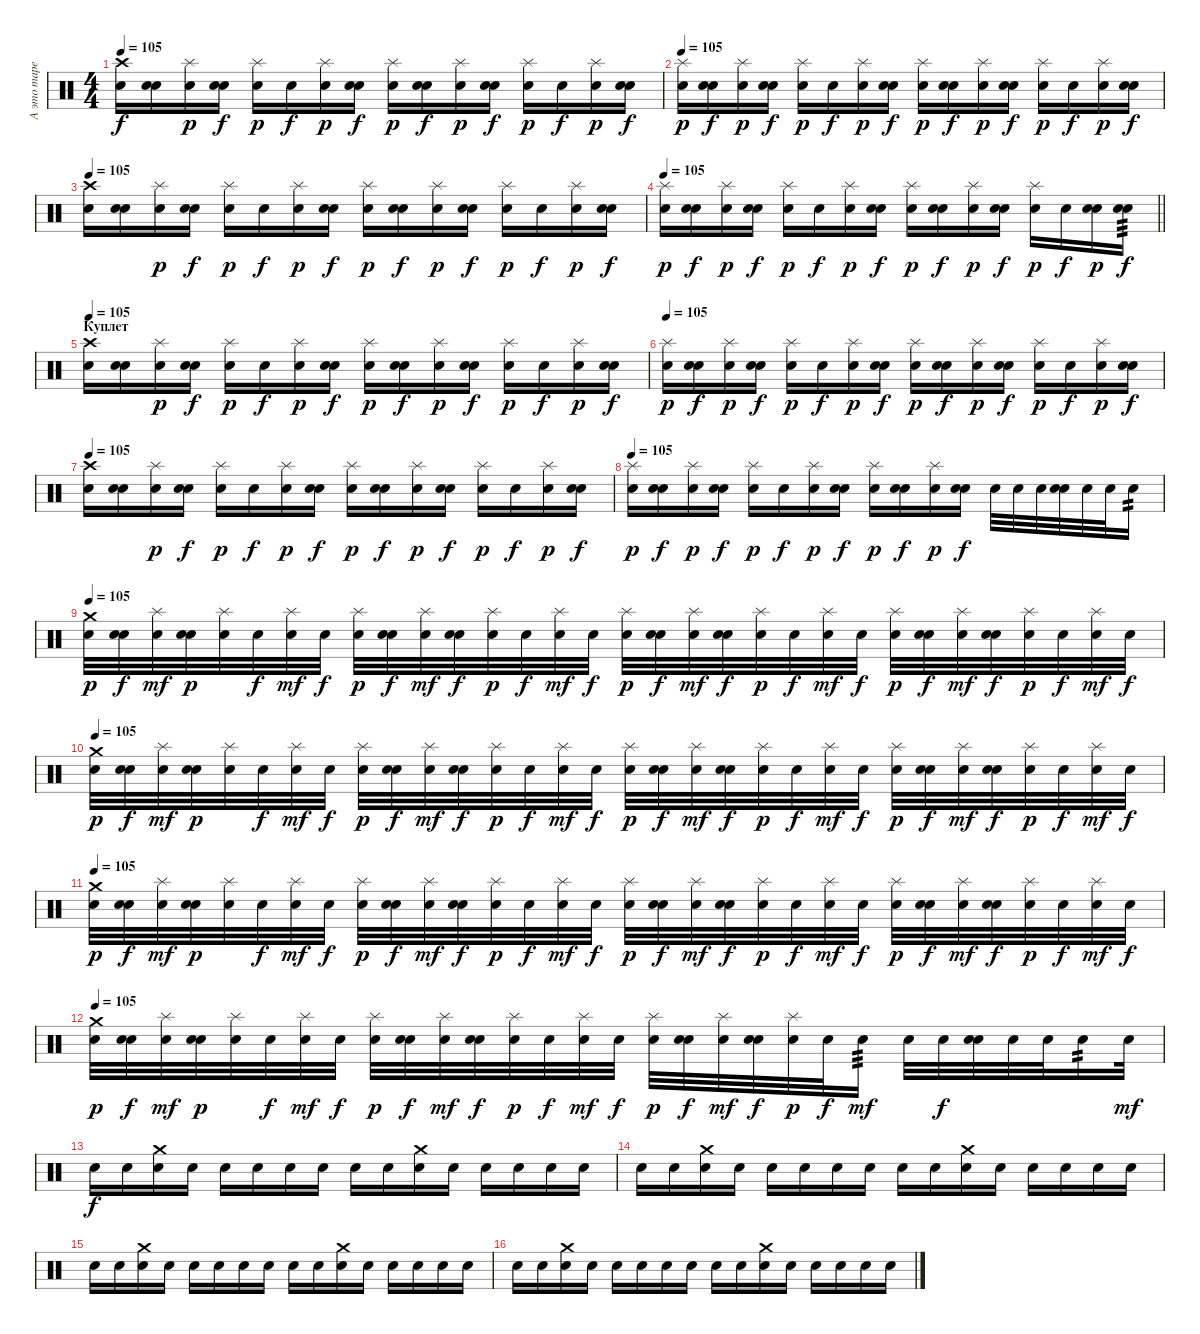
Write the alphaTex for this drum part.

\track ("А это тарелки уже" "А это таре") {instrument percussion}
\staff {score}
\articulation defaults
\ts (4 4)
\tempo 115
\tempo 105
\clef neutral
\ks c
("Crash high (hit)" "Snare (hit)").16{dy f} ("Snare (hit)" "Snare (hit)").16 ("Splash (hit)" "Snare (hit)").16{dy p} ("Snare (hit)" "Snare (hit)").16{dy f} ("Splash (hit)" "Snare (hit)").16{dy p} "Snare (hit)".16{dy f} ("Splash (hit)" "Snare (hit)").16{dy p} ("Snare (hit)" "Snare (hit)").16{dy f} ("Splash (hit)" "Snare (hit)").16{dy p} ("Snare (hit)" "Snare (hit)").16{dy f} ("Splash (hit)" "Snare (hit)").16{dy p} ("Snare (hit)" "Snare (hit)").16{dy f} ("Splash (hit)" "Snare (hit)").16{dy p} "Snare (hit)".16{dy f} ("Splash (hit)" "Snare (hit)").16{dy p} ("Snare (hit)" "Snare (hit)").16{dy f} |
\tempo 105
("Splash (hit)" "Snare (hit)").16{dy p} ("Snare (hit)" "Snare (hit)").16{dy f} ("Splash (hit)" "Snare (hit)").16{dy p} ("Snare (hit)" "Snare (hit)").16{dy f} ("Splash (hit)" "Snare (hit)").16{dy p} "Snare (hit)".16{dy f} ("Splash (hit)" "Snare (hit)").16{dy p} ("Snare (hit)" "Snare (hit)").16{dy f} ("Splash (hit)" "Snare (hit)").16{dy p} ("Snare (hit)" "Snare (hit)").16{dy f} ("Splash (hit)" "Snare (hit)").16{dy p} ("Snare (hit)" "Snare (hit)").16{dy f} ("Splash (hit)" "Snare (hit)").16{dy p} "Snare (hit)".16{dy f} ("Splash (hit)" "Snare (hit)").16{dy p} ("Snare (hit)" "Snare (hit)").16{dy f} |
\tempo 105
("Crash high (hit)" "Snare (hit)").16 ("Snare (hit)" "Snare (hit)").16 ("Splash (hit)" "Snare (hit)").16{dy p} ("Snare (hit)" "Snare (hit)").16{dy f} ("Splash (hit)" "Snare (hit)").16{dy p} "Snare (hit)".16{dy f} ("Splash (hit)" "Snare (hit)").16{dy p} ("Snare (hit)" "Snare (hit)").16{dy f} ("Splash (hit)" "Snare (hit)").16{dy p} ("Snare (hit)" "Snare (hit)").16{dy f} ("Splash (hit)" "Snare (hit)").16{dy p} ("Snare (hit)" "Snare (hit)").16{dy f} ("Splash (hit)" "Snare (hit)").16{dy p} "Snare (hit)".16{dy f} ("Splash (hit)" "Snare (hit)").16{dy p} ("Snare (hit)" "Snare (hit)").16{dy f} |
\tempo 105
\barLineRight lightlight
("Splash (hit)" "Snare (hit)").16{dy p} ("Snare (hit)" "Snare (hit)").16{dy f} ("Splash (hit)" "Snare (hit)").16{dy p} ("Snare (hit)" "Snare (hit)").16{dy f} ("Splash (hit)" "Snare (hit)").16{dy p} "Snare (hit)".16{dy f} ("Splash (hit)" "Snare (hit)").16{dy p} ("Snare (hit)" "Snare (hit)").16{dy f} ("Splash (hit)" "Snare (hit)").16{dy p} ("Snare (hit)" "Snare (hit)").16{dy f} ("Splash (hit)" "Snare (hit)").16{dy p} ("Snare (hit)" "Snare (hit)").16{dy f} ("Splash (hit)" "Snare (hit)").16{dy p} "Snare (hit)".16{dy f} ("Snare (hit)" "Snare (hit)").16{dy p} ("Snare (hit)" "Snare (hit)").16{tp 3 dy f} |
\section ("" "Куплет")
\tempo 105
("Crash high (hit)" "Snare (hit)").16 ("Snare (hit)" "Snare (hit)").16 ("Splash (hit)" "Snare (hit)").16{dy p} ("Snare (hit)" "Snare (hit)").16{dy f} ("Splash (hit)" "Snare (hit)").16{dy p} "Snare (hit)".16{dy f} ("Splash (hit)" "Snare (hit)").16{dy p} ("Snare (hit)" "Snare (hit)").16{dy f} ("Splash (hit)" "Snare (hit)").16{dy p} ("Snare (hit)" "Snare (hit)").16{dy f} ("Splash (hit)" "Snare (hit)").16{dy p} ("Snare (hit)" "Snare (hit)").16{dy f} ("Splash (hit)" "Snare (hit)").16{dy p} "Snare (hit)".16{dy f} ("Splash (hit)" "Snare (hit)").16{dy p} ("Snare (hit)" "Snare (hit)").16{dy f} |
\tempo 105
("Splash (hit)" "Snare (hit)").16{dy p} ("Snare (hit)" "Snare (hit)").16{dy f} ("Splash (hit)" "Snare (hit)").16{dy p} ("Snare (hit)" "Snare (hit)").16{dy f} ("Splash (hit)" "Snare (hit)").16{dy p} "Snare (hit)".16{dy f} ("Splash (hit)" "Snare (hit)").16{dy p} ("Snare (hit)" "Snare (hit)").16{dy f} ("Splash (hit)" "Snare (hit)").16{dy p} ("Snare (hit)" "Snare (hit)").16{dy f} ("Splash (hit)" "Snare (hit)").16{dy p} ("Snare (hit)" "Snare (hit)").16{dy f} ("Splash (hit)" "Snare (hit)").16{dy p} "Snare (hit)".16{dy f} ("Splash (hit)" "Snare (hit)").16{dy p} ("Snare (hit)" "Snare (hit)").16{dy f} |
\tempo 105
("Crash high (hit)" "Snare (hit)").16 ("Snare (hit)" "Snare (hit)").16 ("Splash (hit)" "Snare (hit)").16{dy p} ("Snare (hit)" "Snare (hit)").16{dy f} ("Splash (hit)" "Snare (hit)").16{dy p} "Snare (hit)".16{dy f} ("Splash (hit)" "Snare (hit)").16{dy p} ("Snare (hit)" "Snare (hit)").16{dy f} ("Splash (hit)" "Snare (hit)").16{dy p} ("Snare (hit)" "Snare (hit)").16{dy f} ("Splash (hit)" "Snare (hit)").16{dy p} ("Snare (hit)" "Snare (hit)").16{dy f} ("Splash (hit)" "Snare (hit)").16{dy p} "Snare (hit)".16{dy f} ("Splash (hit)" "Snare (hit)").16{dy p} ("Snare (hit)" "Snare (hit)").16{dy f} |
\tempo 105
("Splash (hit)" "Snare (hit)").16{dy p} ("Snare (hit)" "Snare (hit)").16{dy f} ("Splash (hit)" "Snare (hit)").16{dy p} ("Snare (hit)" "Snare (hit)").16{dy f} ("Splash (hit)" "Snare (hit)").16{dy p} "Snare (hit)".16{dy f} ("Splash (hit)" "Snare (hit)").16{dy p} ("Snare (hit)" "Snare (hit)").16{dy f} ("Splash (hit)" "Snare (hit)").16{dy p} ("Snare (hit)" "Snare (hit)").16{dy f} ("Splash (hit)" "Snare (hit)").16{dy p} ("Snare (hit)" "Snare (hit)").16{dy f} "Snare (hit)".32 "Snare (hit)".32 "Snare (hit)".32 ("Snare (hit)" "Snare (hit)").32 "Snare (hit)".32 "Snare (hit)".32 "Snare (hit)".16{tp 2} |
\tempo 105
("Crash medium (hit)" "Snare (hit)").32{dy p} ("Snare (hit)" "Snare (hit)").32{dy f} ("Splash (hit)" "Snare (hit)").32{dy mf} ("Snare (hit)" "Snare (hit)").32{dy p} ("Splash (hit)" "Snare (hit)").32 "Snare (hit)".32{dy f} ("Splash (hit)" "Snare (hit)").32{dy mf} "Snare (hit)".32{dy f} ("Splash (hit)" "Snare (hit)").32{dy p} ("Snare (hit)" "Snare (hit)").32{dy f} ("Splash (hit)" "Snare (hit)").32{dy mf} ("Snare (hit)" "Snare (hit)").32{dy f} ("Splash (hit)" "Snare (hit)").32{dy p} "Snare (hit)".32{dy f} ("Splash (hit)" "Snare (hit)").32{dy mf} "Snare (hit)".32{dy f} ("Splash (hit)" "Snare (hit)").32{dy p} ("Snare (hit)" "Snare (hit)").32{dy f} ("Splash (hit)" "Snare (hit)").32{dy mf} ("Snare (hit)" "Snare (hit)").32{dy f} ("Splash (hit)" "Snare (hit)").32{dy p} "Snare (hit)".32{dy f} ("Splash (hit)" "Snare (hit)").32{dy mf} "Snare (hit)".32{dy f} ("Splash (hit)" "Snare (hit)").32{dy p} ("Snare (hit)" "Snare (hit)").32{dy f} ("Splash (hit)" "Snare (hit)").32{dy mf} ("Snare (hit)" "Snare (hit)").32{dy f} ("Splash (hit)" "Snare (hit)").32{dy p} "Snare (hit)".32{dy f} ("Splash (hit)" "Snare (hit)").32{dy mf} "Snare (hit)".32{dy f} |
\tempo 105
("Crash medium (hit)" "Snare (hit)").32{dy p} ("Snare (hit)" "Snare (hit)").32{dy f} ("Splash (hit)" "Snare (hit)").32{dy mf} ("Snare (hit)" "Snare (hit)").32{dy p} ("Splash (hit)" "Snare (hit)").32 "Snare (hit)".32{dy f} ("Splash (hit)" "Snare (hit)").32{dy mf} "Snare (hit)".32{dy f} ("Splash (hit)" "Snare (hit)").32{dy p} ("Snare (hit)" "Snare (hit)").32{dy f} ("Splash (hit)" "Snare (hit)").32{dy mf} ("Snare (hit)" "Snare (hit)").32{dy f} ("Splash (hit)" "Snare (hit)").32{dy p} "Snare (hit)".32{dy f} ("Splash (hit)" "Snare (hit)").32{dy mf} "Snare (hit)".32{dy f} ("Splash (hit)" "Snare (hit)").32{dy p} ("Snare (hit)" "Snare (hit)").32{dy f} ("Splash (hit)" "Snare (hit)").32{dy mf} ("Snare (hit)" "Snare (hit)").32{dy f} ("Splash (hit)" "Snare (hit)").32{dy p} "Snare (hit)".32{dy f} ("Splash (hit)" "Snare (hit)").32{dy mf} "Snare (hit)".32{dy f} ("Splash (hit)" "Snare (hit)").32{dy p} ("Snare (hit)" "Snare (hit)").32{dy f} ("Splash (hit)" "Snare (hit)").32{dy mf} ("Snare (hit)" "Snare (hit)").32{dy f} ("Splash (hit)" "Snare (hit)").32{dy p} "Snare (hit)".32{dy f} ("Splash (hit)" "Snare (hit)").32{dy mf} "Snare (hit)".32{dy f} |
\tempo 105
("Crash medium (hit)" "Snare (hit)").32{dy p} ("Snare (hit)" "Snare (hit)").32{dy f} ("Splash (hit)" "Snare (hit)").32{dy mf} ("Snare (hit)" "Snare (hit)").32{dy p} ("Splash (hit)" "Snare (hit)").32 "Snare (hit)".32{dy f} ("Splash (hit)" "Snare (hit)").32{dy mf} "Snare (hit)".32{dy f} ("Splash (hit)" "Snare (hit)").32{dy p} ("Snare (hit)" "Snare (hit)").32{dy f} ("Splash (hit)" "Snare (hit)").32{dy mf} ("Snare (hit)" "Snare (hit)").32{dy f} ("Splash (hit)" "Snare (hit)").32{dy p} "Snare (hit)".32{dy f} ("Splash (hit)" "Snare (hit)").32{dy mf} "Snare (hit)".32{dy f} ("Splash (hit)" "Snare (hit)").32{dy p} ("Snare (hit)" "Snare (hit)").32{dy f} ("Splash (hit)" "Snare (hit)").32{dy mf} ("Snare (hit)" "Snare (hit)").32{dy f} ("Splash (hit)" "Snare (hit)").32{dy p} "Snare (hit)".32{dy f} ("Splash (hit)" "Snare (hit)").32{dy mf} "Snare (hit)".32{dy f} ("Splash (hit)" "Snare (hit)").32{dy p} ("Snare (hit)" "Snare (hit)").32{dy f} ("Splash (hit)" "Snare (hit)").32{dy mf} ("Snare (hit)" "Snare (hit)").32{dy f} ("Splash (hit)" "Snare (hit)").32{dy p} "Snare (hit)".32{dy f} ("Splash (hit)" "Snare (hit)").32{dy mf} "Snare (hit)".32{dy f} |
\tempo 105
("Crash medium (hit)" "Snare (hit)").32{dy p} ("Snare (hit)" "Snare (hit)").32{dy f} ("Splash (hit)" "Snare (hit)").32{dy mf} ("Snare (hit)" "Snare (hit)").32{dy p} ("Splash (hit)" "Snare (hit)").32 "Snare (hit)".32{dy f} ("Splash (hit)" "Snare (hit)").32{dy mf} "Snare (hit)".32{dy f} ("Splash (hit)" "Snare (hit)").32{dy p} ("Snare (hit)" "Snare (hit)").32{dy f} ("Splash (hit)" "Snare (hit)").32{dy mf} ("Snare (hit)" "Snare (hit)").32{dy f} ("Splash (hit)" "Snare (hit)").32{dy p} "Snare (hit)".32{dy f} ("Splash (hit)" "Snare (hit)").32{dy mf} "Snare (hit)".32{dy f} ("Splash (hit)" "Snare (hit)").32{dy p} ("Snare (hit)" "Snare (hit)").32{dy f} ("Splash (hit)" "Snare (hit)").32{dy mf} ("Snare (hit)" "Snare (hit)").32{dy f} ("Splash (hit)" "Snare (hit)").32{dy p} "Snare (hit)".32{dy f} "Snare (hit)".16{tp 3 dy mf} "Snare (hit)".32 "Snare (hit)".32{dy f} ("Snare (hit)" "Snare (hit)").32 "Snare (hit)".32 "Snare (hit)".32 "Snare (hit)".16{tp 2} "Snare (hit)".32{dy mf} |
"Snare (hit)".16{dy f} "Snare (hit)".16 ("Crash medium (hit)" "Snare (hit)").16 "Snare (hit)".16 "Snare (hit)".16 "Snare (hit)".16 "Snare (hit)".16 "Snare (hit)".16 "Snare (hit)".16 "Snare (hit)".16 ("Crash medium (hit)" "Snare (hit)").16 "Snare (hit)".16 "Snare (hit)".16 "Snare (hit)".16 "Snare (hit)".16 "Snare (hit)".16 |
"Snare (hit)".16 "Snare (hit)".16 ("Crash medium (hit)" "Snare (hit)").16 "Snare (hit)".16 "Snare (hit)".16 "Snare (hit)".16 "Snare (hit)".16 "Snare (hit)".16 "Snare (hit)".16 "Snare (hit)".16 ("Crash medium (hit)" "Snare (hit)").16 "Snare (hit)".16 "Snare (hit)".16 "Snare (hit)".16 "Snare (hit)".16 "Snare (hit)".16 |
"Snare (hit)".16 "Snare (hit)".16 ("Crash medium (hit)" "Snare (hit)").16 "Snare (hit)".16 "Snare (hit)".16 "Snare (hit)".16 "Snare (hit)".16 "Snare (hit)".16 "Snare (hit)".16 "Snare (hit)".16 ("Crash medium (hit)" "Snare (hit)").16 "Snare (hit)".16 "Snare (hit)".16 "Snare (hit)".16 "Snare (hit)".16 "Snare (hit)".16 |
"Snare (hit)".16 "Snare (hit)".16 ("Crash medium (hit)" "Snare (hit)").16 "Snare (hit)".16 "Snare (hit)".16 "Snare (hit)".16 "Snare (hit)".16 "Snare (hit)".16 "Snare (hit)".16 "Snare (hit)".16 ("Crash medium (hit)" "Snare (hit)").16 "Snare (hit)".16 "Snare (hit)".16 "Snare (hit)".16 "Snare (hit)".16 "Snare (hit)".16
